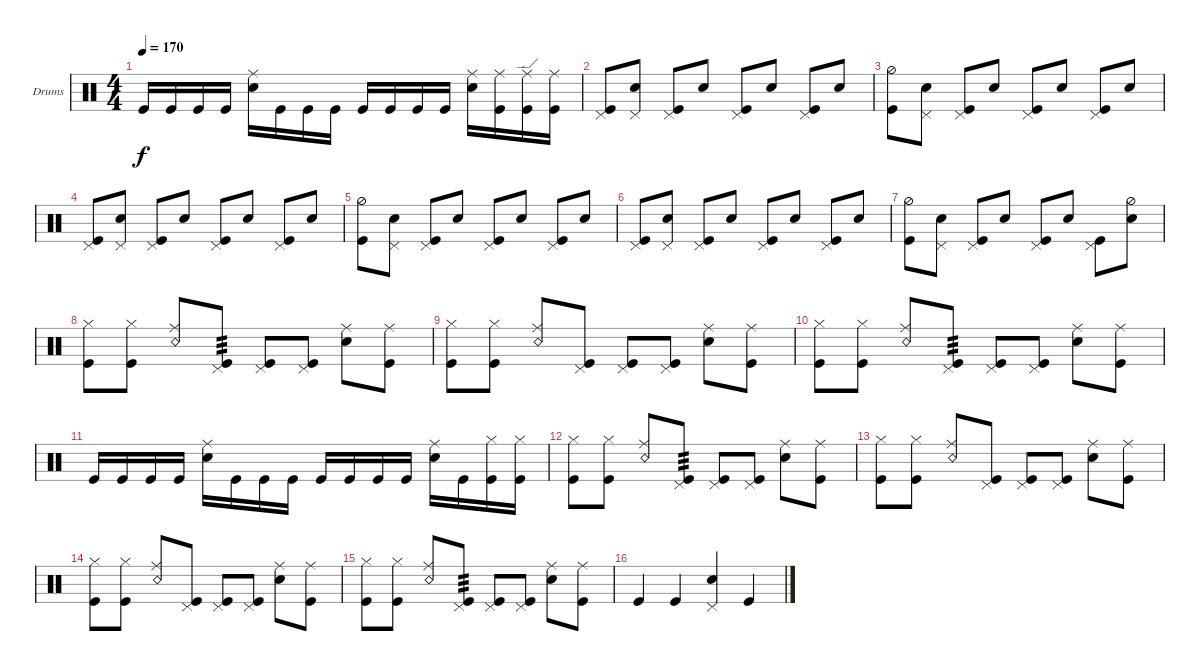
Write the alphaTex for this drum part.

\bracketExtendMode groupsimilarinstruments
\firstSystemTrackNameOrientation horizontal
\otherSystemsTrackNameOrientation horizontal
\track ("Danya" "Drums") {mute instrument percussion}
\staff {score}
\articulation defaults
\ts (4 4)
\tempo 170
\clef neutral
\scale
0.333333
\ks c "Kick (hit)".16{dy f} "Kick (hit)".16 "Kick (hit)".16 "Kick (hit)".16
("Ride (middle)" "Snare (hit) 2").16 "Kick (hit)".16 "Kick (hit)".16 "Kick (hit)".16 "Kick (hit)".16 "Kick (hit)".16 "Kick (hit)".16 "Kick (hit)".16 ("Ride (middle)" "Snare (hit) 2").16 ("Kick (hit)" "Ride (middle)").16 ("Kick (hit)" "Ride (edge)").16 ("Kick (hit)" "Ride (middle)").16 |
\scale
0.333333 ("Kick (hit)" "Pedal Hi-Hat (hit)").8 ("Snare (hit) 2" "Pedal Hi-Hat (hit)").8 ("Kick (hit)" "Pedal Hi-Hat (hit)").8 "Snare (hit) 2".8 ("Pedal Hi-Hat (hit)" "Kick (hit)").8 "Snare (hit) 2".8 ("Kick (hit)" "Pedal Hi-Hat (hit)").8 "Snare (hit) 2".8 |
\scale
0.333333 ("Kick (hit)" "Hi-Hat (half)").8 ("Snare (hit) 2" "Pedal Hi-Hat (hit)").8 ("Kick (hit)" "Pedal Hi-Hat (hit)").8 "Snare (hit) 2".8 ("Pedal Hi-Hat (hit)" "Kick (hit)").8 "Snare (hit) 2".8 ("Kick (hit)" "Pedal Hi-Hat (hit)").8 "Snare (hit) 2".8 |
\scale
0.333333 ("Kick (hit)" "Pedal Hi-Hat (hit)").8 ("Snare (hit) 2" "Pedal Hi-Hat (hit)").8 ("Kick (hit)" "Pedal Hi-Hat (hit)").8 "Snare (hit) 2".8 ("Pedal Hi-Hat (hit)" "Kick (hit)").8 "Snare (hit) 2".8 ("Kick (hit)" "Pedal Hi-Hat (hit)").8 "Snare (hit) 2".8 |
\scale
0.333333 ("Kick (hit)" "Hi-Hat (half)").8 ("Snare (hit) 2" "Pedal Hi-Hat (hit)").8 ("Kick (hit)" "Pedal Hi-Hat (hit)").8 "Snare (hit) 2".8 ("Pedal Hi-Hat (hit)" "Kick (hit)").8 "Snare (hit) 2".8 ("Kick (hit)" "Pedal Hi-Hat (hit)").8 "Snare (hit) 2".8 |
\scale
0.333333 ("Kick (hit)" "Pedal Hi-Hat (hit)").8 ("Snare (hit) 2" "Pedal Hi-Hat (hit)").8 ("Kick (hit)" "Pedal Hi-Hat (hit)").8 "Snare (hit) 2".8 ("Pedal Hi-Hat (hit)" "Kick (hit)").8 "Snare (hit) 2".8 ("Kick (hit)" "Pedal Hi-Hat (hit)").8 "Snare (hit) 2".8 |
\scale
0.333333 ("Kick (hit)" "Hi-Hat (half)").8 ("Snare (hit) 2" "Pedal Hi-Hat (hit)").8 ("Kick (hit)" "Pedal Hi-Hat (hit)").8 "Snare (hit) 2".8 ("Pedal Hi-Hat (hit)" "Kick (hit)").8 "Snare (hit) 2".8 ("Kick (hit)" "Pedal Hi-Hat (hit)").8 ("Snare (hit) 2" "Hi-Hat (half)").8 |
("Hi-Hat (closed)" "Kick (hit)").8 ("Hi-Hat (closed)" "Kick (hit)").8 ("Snare (rim shot)" "Ride (middle)").8 ("Kick (hit)" "Pedal Hi-Hat (hit)").8{tp 3} ("Kick (hit)" "Pedal Hi-Hat (hit)").8 ("Kick (hit)" "Pedal Hi-Hat (hit)").8 ("Snare (hit) 2" "Ride (middle)").8 ("Kick (hit)" "Ride (middle)").8 |
("Hi-Hat (closed)" "Kick (hit)").8 ("Hi-Hat (closed)" "Kick (hit)").8 ("Snare (rim shot)" "Ride (middle)").8 ("Kick (hit)" "Pedal Hi-Hat (hit)").8 ("Kick (hit)" "Pedal Hi-Hat (hit)").8 ("Kick (hit)" "Pedal Hi-Hat (hit)").8 ("Snare (hit) 2" "Ride (middle)").8 ("Kick (hit)" "Ride (middle)").8 |
("Hi-Hat (closed)" "Kick (hit)").8 ("Hi-Hat (closed)" "Kick (hit)").8 ("Snare (rim shot)" "Ride (middle)").8 ("Kick (hit)" "Pedal Hi-Hat (hit)").8{tp 3} ("Kick (hit)" "Pedal Hi-Hat (hit)").8 ("Kick (hit)" "Pedal Hi-Hat (hit)").8 ("Snare (hit) 2" "Ride (middle)").8 ("Kick (hit)" "Ride (middle)").8 |
"Kick (hit)".16 "Kick (hit)".16 "Kick (hit)".16 "Kick (hit)".16 ("Ride (middle)" "Snare (hit) 2").16 "Kick (hit)".16 "Kick (hit)".16 "Kick (hit)".16 "Kick (hit)".16 "Kick (hit)".16 "Kick (hit)".16 "Kick (hit)".16 ("Ride (middle)" "Snare (hit) 2").16 "Kick (hit)".16 ("Kick (hit)" "Hi-Hat (closed)").16 ("Kick (hit)" "Hi-Hat (closed)").16 |
("Hi-Hat (closed)" "Kick (hit)").8 ("Hi-Hat (closed)" "Kick (hit)").8 ("Snare (rim shot)" "Ride (middle)").8 ("Kick (hit)" "Pedal Hi-Hat (hit)").8{tp 3} ("Kick (hit)" "Pedal Hi-Hat (hit)").8 ("Kick (hit)" "Pedal Hi-Hat (hit)").8 ("Snare (hit) 2" "Ride (middle)").8 ("Kick (hit)" "Ride (middle)").8 |
("Hi-Hat (closed)" "Kick (hit)").8 ("Hi-Hat (closed)" "Kick (hit)").8 ("Snare (rim shot)" "Ride (middle)").8 ("Kick (hit)" "Pedal Hi-Hat (hit)").8 ("Kick (hit)" "Pedal Hi-Hat (hit)").8 ("Kick (hit)" "Pedal Hi-Hat (hit)").8 ("Snare (hit) 2" "Ride (middle)").8 ("Kick (hit)" "Ride (middle)").8 |
("Hi-Hat (closed)" "Kick (hit)").8 ("Hi-Hat (closed)" "Kick (hit)").8 ("Snare (rim shot)" "Ride (middle)").8 ("Kick (hit)" "Pedal Hi-Hat (hit)").8 ("Kick (hit)" "Pedal Hi-Hat (hit)").8 ("Kick (hit)" "Pedal Hi-Hat (hit)").8 ("Snare (hit) 2" "Ride (middle)").8 ("Kick (hit)" "Ride (middle)").8 |
("Hi-Hat (closed)" "Kick (hit)").8 ("Hi-Hat (closed)" "Kick (hit)").8 ("Snare (rim shot)" "Ride (middle)").8 ("Kick (hit)" "Pedal Hi-Hat (hit)").8{tp 3} ("Kick (hit)" "Pedal Hi-Hat (hit)").8 ("Kick (hit)" "Pedal Hi-Hat (hit)").8 ("Snare (hit) 2" "Ride (middle)").8 ("Kick (hit)" "Ride (middle)").8 |
"Kick (hit)".4 "Kick (hit)".4 ("Snare (hit) 2" "Pedal Hi-Hat (hit)").4 "Kick (hit)".4
